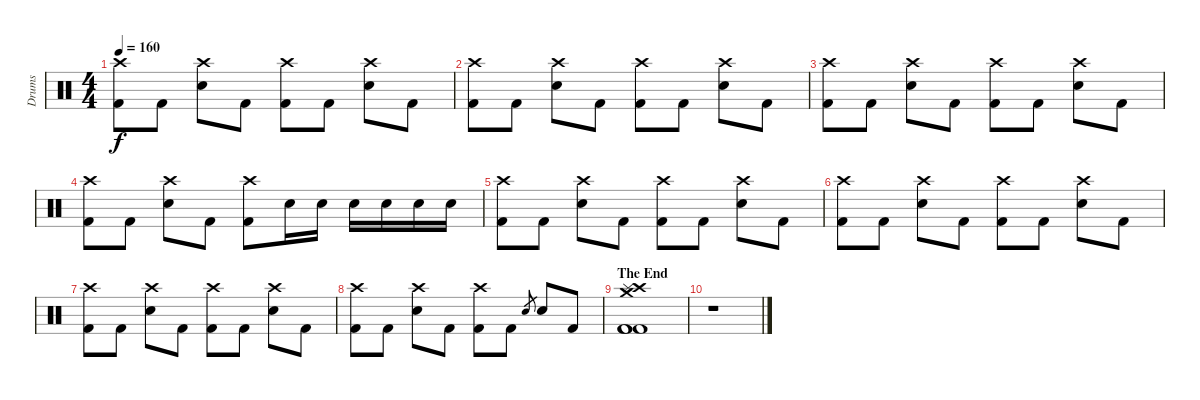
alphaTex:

\track ("Drums" "Drums") {instrument percussion}
\staff {score}
\articulation defaults
\ts (4 4)
\tempo 160
\clef neutral
\ks c
("Crash high (hit)" "Kick (hit) 2").8{dy f} "Kick (hit) 2".8 ("Crash high (hit)" "Snare (hit) 2").8 "Kick (hit) 2".8 ("Crash high (hit)" "Kick (hit) 2").8 "Kick (hit) 2".8 ("Crash high (hit)" "Snare (hit) 2").8 "Kick (hit) 2".8 |
("Crash high (hit)" "Kick (hit) 2").8 "Kick (hit) 2".8 ("Crash high (hit)" "Snare (hit) 2").8 "Kick (hit) 2".8 ("Crash high (hit)" "Kick (hit) 2").8 "Kick (hit) 2".8 ("Crash high (hit)" "Snare (hit) 2").8 "Kick (hit) 2".8 |
("Crash high (hit)" "Kick (hit) 2").8 "Kick (hit) 2".8 ("Crash high (hit)" "Snare (hit) 2").8 "Kick (hit) 2".8 ("Crash high (hit)" "Kick (hit) 2").8 "Kick (hit) 2".8 ("Crash high (hit)" "Snare (hit) 2").8 "Kick (hit) 2".8 |
("Crash high (hit)" "Kick (hit) 2").8 "Kick (hit) 2".8 ("Crash high (hit)" "Snare (hit) 2").8 "Kick (hit) 2".8 ("Crash high (hit)" "Kick (hit) 2").8 "Snare (hit) 2".16 "Snare (hit) 2".16 "Snare (hit) 2".16 "Snare (hit) 2".16 "Snare (hit) 2".16 "Snare (hit) 2".16 |
("Crash high (hit)" "Kick (hit) 2").8 "Kick (hit) 2".8 ("Crash high (hit)" "Snare (hit) 2").8 "Kick (hit) 2".8 ("Crash high (hit)" "Kick (hit) 2").8 "Kick (hit) 2".8 ("Crash high (hit)" "Snare (hit) 2").8 "Kick (hit) 2".8 |
("Crash high (hit)" "Kick (hit) 2").8 "Kick (hit) 2".8 ("Crash high (hit)" "Snare (hit) 2").8 "Kick (hit) 2".8 ("Crash high (hit)" "Kick (hit) 2").8 "Kick (hit) 2".8 ("Crash high (hit)" "Snare (hit) 2").8 "Kick (hit) 2".8 |
("Crash high (hit)" "Kick (hit) 2").8 "Kick (hit) 2".8 ("Crash high (hit)" "Snare (hit) 2").8 "Kick (hit) 2".8 ("Crash high (hit)" "Kick (hit) 2").8 "Kick (hit) 2".8 ("Crash high (hit)" "Snare (hit) 2").8 "Kick (hit) 2".8 |
("Crash high (hit)" "Kick (hit) 2").8 "Kick (hit) 2".8 ("Crash high (hit)" "Snare (hit) 2").8 "Kick (hit) 2".8 ("Crash high (hit)" "Kick (hit) 2").8 "Kick (hit) 2".8 "Snare (hit) 2".8{gr} "Snare (hit) 2".8 "Kick (hit) 2".8 |
\section ("" "The End")
("Crash high (hit)" "Crash medium (hit)" "Splash (hit)" "Kick (hit) 2" "Kick (hit) 2" "Kick (hit) 2").1 |
r.1
